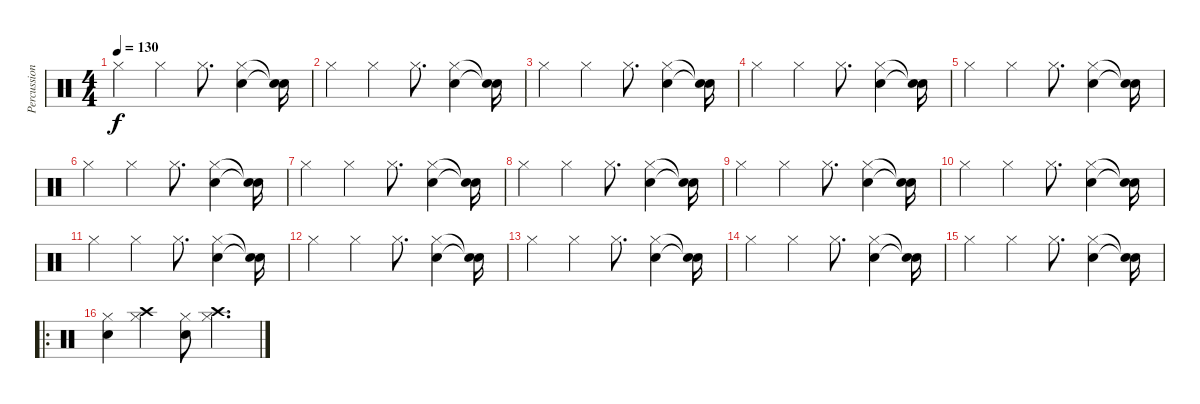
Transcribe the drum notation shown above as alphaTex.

\track ("Percussion" "Percussion") {instrument percussion}
\staff {score}
\articulation defaults
\ts (4 4)
\tempo 130
\clef neutral
\ks c "Hi-Hat (closed)".4{dy f} "Hi-Hat (closed)".4 "Hi-Hat (closed)".8{d}
("Hi-Hat (closed)" "Snare (hit) 2").4 ("Snare (hit)"{t} "Snare (hit)"{t}).16 |
"Hi-Hat (closed)".4 "Hi-Hat (closed)".4 "Hi-Hat (closed)".8{d} ("Hi-Hat (closed)" "Snare (hit) 2").4 ("Snare (hit)"{t} "Snare (hit)"{t}).16 |
"Hi-Hat (closed)".4 "Hi-Hat (closed)".4 "Hi-Hat (closed)".8{d} ("Hi-Hat (closed)" "Snare (hit) 2").4 ("Snare (hit)"{t} "Snare (hit)"{t}).16 |
"Hi-Hat (closed)".4 "Hi-Hat (closed)".4 "Hi-Hat (closed)".8{d} ("Hi-Hat (closed)" "Snare (hit) 2").4 ("Snare (hit)"{t} "Snare (hit)"{t}).16 |
"Hi-Hat (closed)".4 "Hi-Hat (closed)".4 "Hi-Hat (closed)".8{d} ("Hi-Hat (closed)" "Snare (hit) 2").4 ("Snare (hit)"{t} "Snare (hit)"{t}).16 |
"Hi-Hat (closed)".4 "Hi-Hat (closed)".4 "Hi-Hat (closed)".8{d} ("Hi-Hat (closed)" "Snare (hit) 2").4 ("Snare (hit)"{t} "Snare (hit)"{t}).16 |
"Hi-Hat (closed)".4 "Hi-Hat (closed)".4 "Hi-Hat (closed)".8{d} ("Hi-Hat (closed)" "Snare (hit) 2").4 ("Snare (hit)"{t} "Snare (hit)"{t}).16 |
"Hi-Hat (closed)".4 "Hi-Hat (closed)".4 "Hi-Hat (closed)".8{d} ("Hi-Hat (closed)" "Snare (hit) 2").4 ("Snare (hit)"{t} "Snare (hit)"{t}).16 |
"Hi-Hat (closed)".4 "Hi-Hat (closed)".4 "Hi-Hat (closed)".8{d} ("Hi-Hat (closed)" "Snare (hit) 2").4 ("Snare (hit)"{t} "Snare (hit)"{t}).16 |
"Hi-Hat (closed)".4 "Hi-Hat (closed)".4 "Hi-Hat (closed)".8{d} ("Hi-Hat (closed)" "Snare (hit) 2").4 ("Snare (hit)"{t} "Snare (hit)"{t}).16 |
"Hi-Hat (closed)".4 "Hi-Hat (closed)".4 "Hi-Hat (closed)".8{d} ("Hi-Hat (closed)" "Snare (hit) 2").4 ("Snare (hit)"{t} "Snare (hit)"{t}).16 |
"Hi-Hat (closed)".4 "Hi-Hat (closed)".4 "Hi-Hat (closed)".8{d} ("Hi-Hat (closed)" "Snare (hit) 2").4 ("Snare (hit)"{t} "Snare (hit)"{t}).16 |
"Hi-Hat (closed)".4 "Hi-Hat (closed)".4 "Hi-Hat (closed)".8{d} ("Hi-Hat (closed)" "Snare (hit) 2").4 ("Snare (hit)"{t} "Snare (hit)"{t}).16 |
"Hi-Hat (closed)".4 "Hi-Hat (closed)".4 "Hi-Hat (closed)".8{d} ("Hi-Hat (closed)" "Snare (hit) 2").4 ("Snare (hit)"{t} "Snare (hit)"{t}).16 |
"Hi-Hat (closed)".4 "Hi-Hat (closed)".4 "Hi-Hat (closed)".8{d} ("Hi-Hat (closed)" "Snare (hit) 2").4 ("Snare (hit)"{t} "Snare (hit)"{t}).16 |
\ro
("Snare (hit) 2" "Hi-Hat (closed)").4{volume 13} ("Crash high (hit)" "Hi-Hat (closed)").4 ("Snare (hit) 2" "Hi-Hat (closed)").8 ("Crash high (hit)" "Hi-Hat (closed)").4{d}
